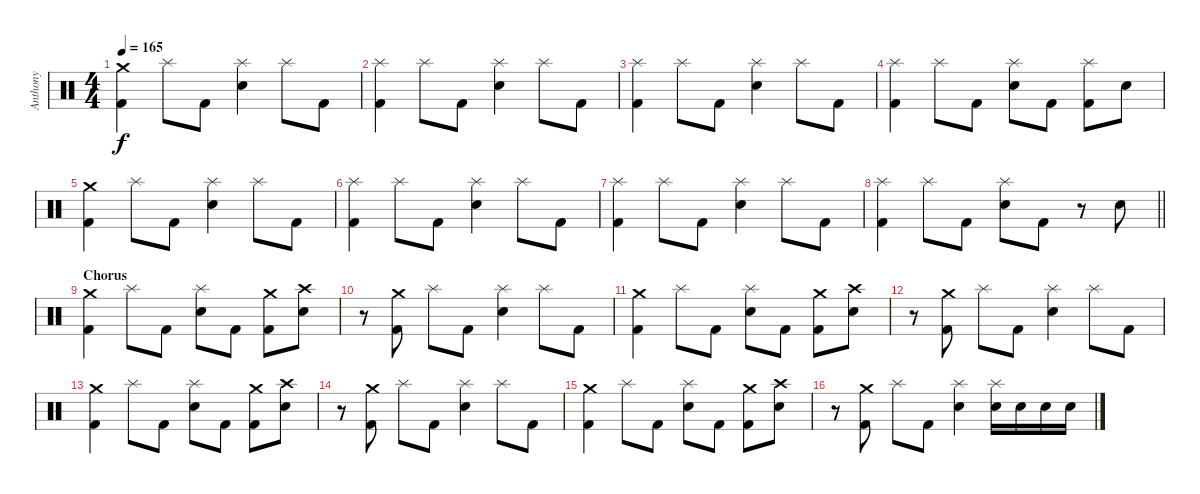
\track ("Anthony" "Anthony") {instrument percussion}
\staff {score}
\articulation defaults
\ts (4 4)
\tempo 165
\clef neutral
\ks c
("Crash medium (hit)" "Kick (hit) 2").4{dy f} "Splash (hit)".8 "Kick (hit) 2".8 ("Splash (hit)" "Electric Snare (hit)").4 "Splash (hit)".8 "Kick (hit) 2".8 |
("Splash (hit)" "Kick (hit) 2").4 "Splash (hit)".8 "Kick (hit) 2".8 ("Splash (hit)" "Electric Snare (hit)").4 "Splash (hit)".8 "Kick (hit) 2".8 |
("Splash (hit)" "Kick (hit) 2").4 "Splash (hit)".8 "Kick (hit) 2".8 ("Splash (hit)" "Electric Snare (hit)").4 "Splash (hit)".8 "Kick (hit) 2".8 |
("Splash (hit)" "Kick (hit) 2").4 "Splash (hit)".8 "Kick (hit) 2".8 ("Splash (hit)" "Electric Snare (hit)").8 "Kick (hit) 2".8 ("Splash (hit)" "Kick (hit) 2").8 "Electric Snare (hit)".8 |
("Crash medium (hit)" "Kick (hit) 2").4 "Splash (hit)".8 "Kick (hit) 2".8 ("Splash (hit)" "Electric Snare (hit)").4 "Splash (hit)".8 "Kick (hit) 2".8 |
("Splash (hit)" "Kick (hit) 2").4 "Splash (hit)".8 "Kick (hit) 2".8 ("Splash (hit)" "Electric Snare (hit)").4 "Splash (hit)".8 "Kick (hit) 2".8 |
("Splash (hit)" "Kick (hit) 2").4 "Splash (hit)".8 "Kick (hit) 2".8 ("Splash (hit)" "Electric Snare (hit)").4 "Splash (hit)".8 "Kick (hit) 2".8 |
\barLineRight lightlight
("Splash (hit)" "Kick (hit) 2").4 "Splash (hit)".8 "Kick (hit) 2".8 ("Splash (hit)" "Electric Snare (hit)").8 "Kick (hit) 2".8 r.8 "Electric Snare (hit)".8 |
\section ("" "Chorus")
("Crash medium (hit)" "Kick (hit) 2").4 "Splash (hit)".8 "Kick (hit) 2".8 ("Splash (hit)" "Electric Snare (hit)").8 "Kick (hit) 2".8 ("Crash medium (hit)" "Kick (hit) 2").8 ("Crash high (hit)" "Electric Snare (hit)").8 |
r.8 ("Crash medium (hit)" "Kick (hit) 2").8 "Splash (hit)".8 "Kick (hit) 2".8 ("Splash (hit)" "Electric Snare (hit)").4 "Splash (hit)".8 "Kick (hit) 2".8 |
("Crash medium (hit)" "Kick (hit) 2").4 "Splash (hit)".8 "Kick (hit) 2".8 ("Splash (hit)" "Electric Snare (hit)").8 "Kick (hit) 2".8 ("Crash medium (hit)" "Kick (hit) 2").8 ("Crash high (hit)" "Electric Snare (hit)").8 |
r.8 ("Crash medium (hit)" "Kick (hit) 2").8 "Splash (hit)".8 "Kick (hit) 2".8 ("Splash (hit)" "Electric Snare (hit)").4 "Splash (hit)".8 "Kick (hit) 2".8 |
("Crash medium (hit)" "Kick (hit) 2").4 "Splash (hit)".8 "Kick (hit) 2".8 ("Splash (hit)" "Electric Snare (hit)").8 "Kick (hit) 2".8 ("Crash medium (hit)" "Kick (hit) 2").8 ("Crash high (hit)" "Electric Snare (hit)").8 |
r.8 ("Crash medium (hit)" "Kick (hit) 2").8 "Splash (hit)".8 "Kick (hit) 2".8 ("Splash (hit)" "Electric Snare (hit)").4 "Splash (hit)".8 "Kick (hit) 2".8 |
("Crash medium (hit)" "Kick (hit) 2").4 "Splash (hit)".8 "Kick (hit) 2".8 ("Splash (hit)" "Electric Snare (hit)").8 "Kick (hit) 2".8 ("Crash medium (hit)" "Kick (hit) 2").8 ("Crash high (hit)" "Electric Snare (hit)").8 |
r.8 ("Crash medium (hit)" "Kick (hit) 2").8 "Splash (hit)".8 "Kick (hit) 2".8 ("Splash (hit)" "Electric Snare (hit)").4 ("Splash (hit)" "Electric Snare (hit)").16 "Electric Snare (hit)".16 "Electric Snare (hit)".16 "Electric Snare (hit)".16
